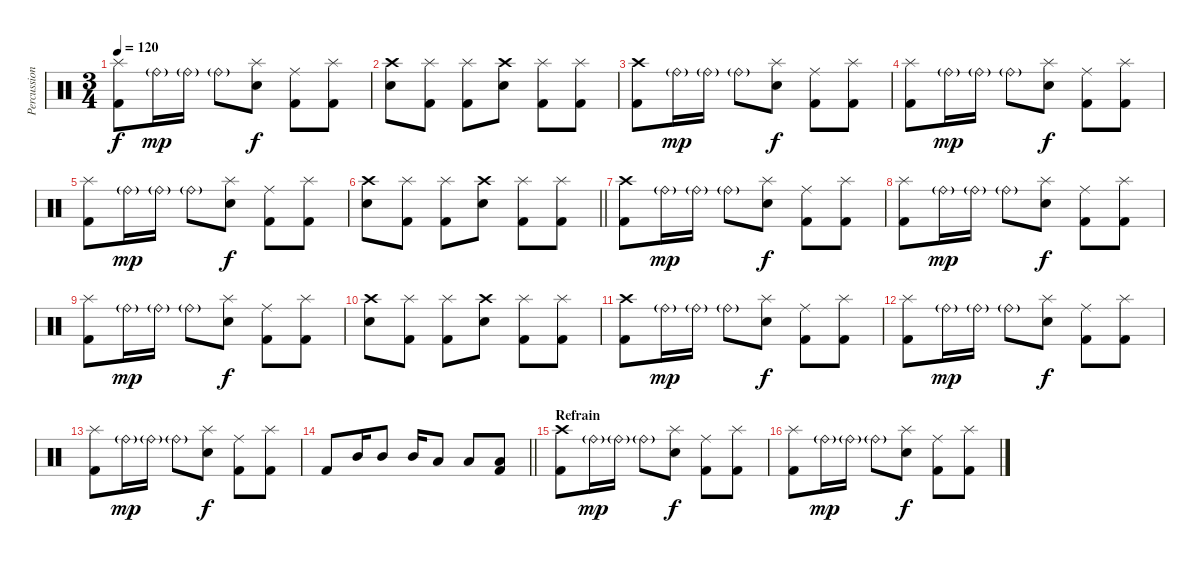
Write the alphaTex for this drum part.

\track ("Percussion" "Percussion") {instrument percussion}
\staff {score}
\articulation defaults
\ts (3 4)
\tempo 120
\clef neutral
\ks c
("Splash (hit)" "Kick (hit) 2").8{dy f} "Ride (bell)"{g}.16{dy mp} "Ride (bell)"{g}.16 "Ride (bell)"{g}.8 ("Splash (hit)" "Electric Snare (hit)").8{dy f} ("Ride (middle)" "Kick (hit) 2").8 ("Splash (hit)" "Kick (hit) 2").8 |
("Crash high (hit)" "Electric Snare (hit)").8 ("Splash (hit)" "Kick (hit) 2").8 ("Splash (hit)" "Kick (hit) 2").8 ("Crash high (hit)" "Electric Snare (hit)").8 ("Splash (hit)" "Kick (hit) 2").8 ("Splash (hit)" "Kick (hit) 2").8 |
("Crash high (hit)" "Kick (hit) 2").8 "Ride (bell)"{g}.16{dy mp} "Ride (bell)"{g}.16 "Ride (bell)"{g}.8 ("Splash (hit)" "Electric Snare (hit)").8{dy f} ("Ride (middle)" "Kick (hit) 2").8 ("Splash (hit)" "Kick (hit) 2").8 |
("Splash (hit)" "Kick (hit) 2").8 "Ride (bell)"{g}.16{dy mp} "Ride (bell)"{g}.16 "Ride (bell)"{g}.8 ("Splash (hit)" "Electric Snare (hit)").8{dy f} ("Ride (middle)" "Kick (hit) 2").8 ("Splash (hit)" "Kick (hit) 2").8 |
("Splash (hit)" "Kick (hit) 2").8 "Ride (bell)"{g}.16{dy mp} "Ride (bell)"{g}.16 "Ride (bell)"{g}.8 ("Splash (hit)" "Electric Snare (hit)").8{dy f} ("Ride (middle)" "Kick (hit) 2").8 ("Splash (hit)" "Kick (hit) 2").8 |
\barLineRight lightlight
("Crash high (hit)" "Electric Snare (hit)").8 ("Splash (hit)" "Kick (hit) 2").8 ("Splash (hit)" "Kick (hit) 2").8 ("Crash high (hit)" "Electric Snare (hit)").8 ("Splash (hit)" "Kick (hit) 2").8 ("Splash (hit)" "Kick (hit) 2").8 |
("Crash high (hit)" "Kick (hit) 2").8 "Ride (bell)"{g}.16{dy mp} "Ride (bell)"{g}.16 "Ride (bell)"{g}.8 ("Splash (hit)" "Electric Snare (hit)").8{dy f} ("Ride (middle)" "Kick (hit) 2").8 ("Splash (hit)" "Kick (hit) 2").8 |
("Splash (hit)" "Kick (hit) 2").8 "Ride (bell)"{g}.16{dy mp} "Ride (bell)"{g}.16 "Ride (bell)"{g}.8 ("Splash (hit)" "Electric Snare (hit)").8{dy f} ("Ride (middle)" "Kick (hit) 2").8 ("Splash (hit)" "Kick (hit) 2").8 |
("Splash (hit)" "Kick (hit) 2").8 "Ride (bell)"{g}.16{dy mp} "Ride (bell)"{g}.16 "Ride (bell)"{g}.8 ("Splash (hit)" "Electric Snare (hit)").8{dy f} ("Ride (middle)" "Kick (hit) 2").8 ("Splash (hit)" "Kick (hit) 2").8 |
("Crash high (hit)" "Electric Snare (hit)").8 ("Splash (hit)" "Kick (hit) 2").8 ("Splash (hit)" "Kick (hit) 2").8 ("Crash high (hit)" "Electric Snare (hit)").8 ("Splash (hit)" "Kick (hit) 2").8 ("Splash (hit)" "Kick (hit) 2").8 |
("Crash high (hit)" "Kick (hit) 2").8 "Ride (bell)"{g}.16{dy mp} "Ride (bell)"{g}.16 "Ride (bell)"{g}.8 ("Splash (hit)" "Electric Snare (hit)").8{dy f} ("Ride (middle)" "Kick (hit) 2").8 ("Splash (hit)" "Kick (hit) 2").8 |
("Splash (hit)" "Kick (hit) 2").8 "Ride (bell)"{g}.16{dy mp} "Ride (bell)"{g}.16 "Ride (bell)"{g}.8 ("Splash (hit)" "Electric Snare (hit)").8{dy f} ("Ride (middle)" "Kick (hit) 2").8 ("Splash (hit)" "Kick (hit) 2").8 |
("Splash (hit)" "Kick (hit) 2").8 "Ride (bell)"{g}.16{dy mp} "Ride (bell)"{g}.16 "Ride (bell)"{g}.8 ("Splash (hit)" "Electric Snare (hit)").8{dy f} ("Ride (middle)" "Kick (hit) 2").8 ("Splash (hit)" "Kick (hit) 2").8 |
\barLineRight lightlight "Kick (hit) 2".8 "Mid Tom (hit)".16 "Mid Tom (hit)".8 "Mid Tom (hit)".16 "Low Tom (hit)".8 "Low Tom (hit)".8
("Low Tom (hit)" "Kick (hit) 2").8 |
\section ("" "Refrain")
("Crash high (hit)" "Kick (hit) 2").8 "Ride (bell)"{g}.16{dy mp} "Ride (bell)"{g}.16 "Ride (bell)"{g}.8 ("Splash (hit)" "Electric Snare (hit)").8{dy f} ("Ride (middle)" "Kick (hit) 2").8 ("Splash (hit)" "Kick (hit) 2").8 |
("Splash (hit)" "Kick (hit) 2").8 "Ride (bell)"{g}.16{dy mp} "Ride (bell)"{g}.16 "Ride (bell)"{g}.8 ("Splash (hit)" "Electric Snare (hit)").8{dy f} ("Ride (middle)" "Kick (hit) 2").8 ("Splash (hit)" "Kick (hit) 2").8
